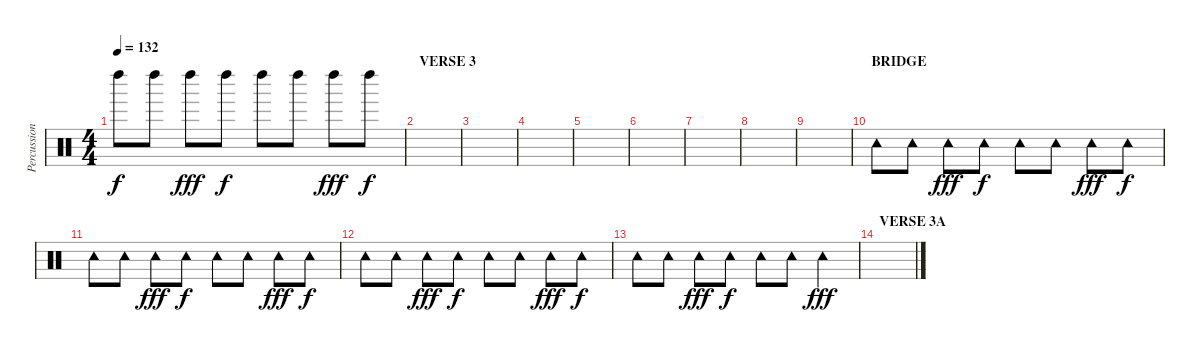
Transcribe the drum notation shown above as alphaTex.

\track ("Percussion" "Percussion") {instrument percussion}
\staff {score}
\articulation defaults
\ts (4 4)
\tempo 132
\clef neutral
\ks c "Left Maraca (hit)".8{dy f} "Left Maraca (hit)".8 "Left Maraca (hit)".8{dy fff} "Left Maraca (hit)".8{dy f} "Left Maraca (hit)".8 "Left Maraca (hit)".8 "Left Maraca (hit)".8{dy fff} "Left Maraca (hit)".8{dy f}
|
\section ("" "VERSE 3")
|
|
|
|
|
|
|
|
\section ("" "BRIDGE")
"Tambourine (hit)".8 "Tambourine (hit)".8 "Tambourine (hit)".8{dy fff} "Tambourine (hit)".8{dy f} "Tambourine (hit)".8 "Tambourine (hit)".8 "Tambourine (hit)".8{dy fff} "Tambourine (hit)".8{dy f} |
"Tambourine (hit)".8 "Tambourine (hit)".8 "Tambourine (hit)".8{dy fff} "Tambourine (hit)".8{dy f} "Tambourine (hit)".8 "Tambourine (hit)".8 "Tambourine (hit)".8{dy fff} "Tambourine (hit)".8{dy f} |
"Tambourine (hit)".8 "Tambourine (hit)".8 "Tambourine (hit)".8{dy fff} "Tambourine (hit)".8{dy f} "Tambourine (hit)".8 "Tambourine (hit)".8 "Tambourine (hit)".8{dy fff} "Tambourine (hit)".8{dy f} |
"Tambourine (hit)".8 "Tambourine (hit)".8 "Tambourine (hit)".8{dy fff} "Tambourine (hit)".8{dy f} "Tambourine (hit)".8 "Tambourine (hit)".8 "Tambourine (hit)".4{dy fff} |
\section ("" "VERSE 3A")
